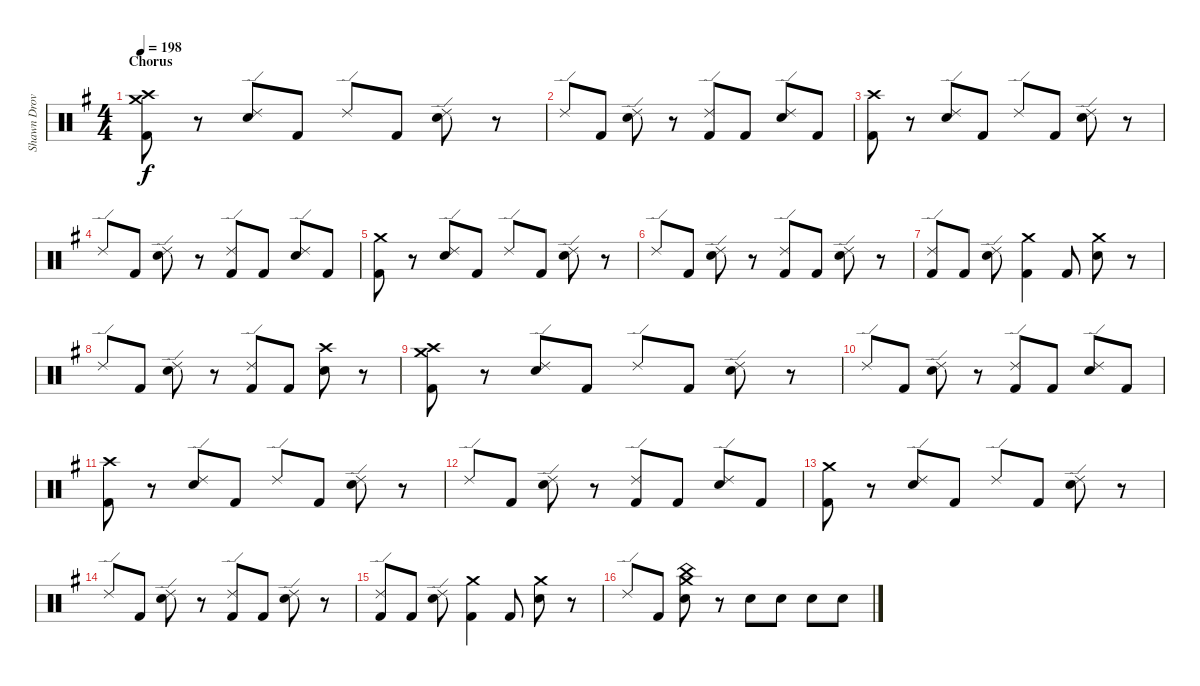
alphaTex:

\track ("Shawn Drover" "Shawn Drov") {instrument percussion}
\staff {score}
\articulation defaults
\ts (4 4)
\section ("" "Chorus")
\tempo 198
\clef neutral
\ks g
("Crash medium (hit)" "Crash high (hit)" "Kick (hit) 2").8{dy f} r.8 ("Ride (edge) 2" "Snare (hit) 2").8 "Kick (hit) 2".8 "Ride (edge) 2".8 "Kick (hit) 2".8 ("Ride (edge) 2" "Snare (hit) 2").8 r.8 |
"Ride (edge) 2".8 "Kick (hit) 2".8 ("Ride (edge) 2" "Snare (hit) 2").8 r.8 ("Ride (edge) 2" "Kick (hit) 2").8 "Kick (hit) 2".8 ("Ride (edge) 2" "Snare (hit) 2").8 "Kick (hit) 2".8 |
("Crash high (hit)" "Kick (hit) 2").8 r.8 ("Ride (edge) 2" "Snare (hit) 2").8 "Kick (hit) 2".8 "Ride (edge) 2".8 "Kick (hit) 2".8 ("Ride (edge) 2" "Snare (hit) 2").8 r.8 |
"Ride (edge) 2".8 "Kick (hit) 2".8 ("Ride (edge) 2" "Snare (hit) 2").8 r.8 ("Ride (edge) 2" "Kick (hit) 2").8 "Kick (hit) 2".8 ("Ride (edge) 2" "Snare (hit) 2").8 "Kick (hit) 2".8 |
("Crash medium (hit)" "Kick (hit) 2").8 r.8 ("Ride (edge) 2" "Snare (hit) 2").8 "Kick (hit) 2".8 "Ride (edge) 2".8 "Kick (hit) 2".8 ("Ride (edge) 2" "Snare (hit) 2").8 r.8 |
"Ride (edge) 2".8 "Kick (hit) 2".8 ("Ride (edge) 2" "Snare (hit) 2").8 r.8 ("Ride (edge) 2" "Kick (hit) 2").8 "Kick (hit) 2".8 ("Ride (edge) 2" "Snare (hit) 2").8 r.8 |
("Ride (edge) 2" "Kick (hit) 2").8 "Kick (hit) 2".8 ("Ride (edge) 2" "Snare (hit) 2").8 ("Crash medium (hit)" "Kick (hit) 2").4 "Kick (hit) 2".8 ("Crash medium (hit)" "Snare (hit) 2").8 r.8 |
"Ride (edge) 2".8 "Kick (hit) 2".8 ("Ride (edge) 2" "Snare (hit) 2").8 r.8 ("Ride (edge) 2" "Kick (hit) 2").8 "Kick (hit) 2".8 ("Crash high (hit)" "Snare (hit) 2").8 r.8 |
("Crash medium (hit)" "Crash high (hit)" "Kick (hit) 2").8 r.8 ("Ride (edge) 2" "Snare (hit) 2").8 "Kick (hit) 2".8 "Ride (edge) 2".8 "Kick (hit) 2".8 ("Ride (edge) 2" "Snare (hit) 2").8 r.8 |
"Ride (edge) 2".8 "Kick (hit) 2".8 ("Ride (edge) 2" "Snare (hit) 2").8 r.8 ("Ride (edge) 2" "Kick (hit) 2").8 "Kick (hit) 2".8 ("Ride (edge) 2" "Snare (hit) 2").8 "Kick (hit) 2".8 |
("Crash high (hit)" "Kick (hit) 2").8 r.8 ("Ride (edge) 2" "Snare (hit) 2").8 "Kick (hit) 2".8 "Ride (edge) 2".8 "Kick (hit) 2".8 ("Ride (edge) 2" "Snare (hit) 2").8 r.8 |
"Ride (edge) 2".8 "Kick (hit) 2".8 ("Ride (edge) 2" "Snare (hit) 2").8 r.8 ("Ride (edge) 2" "Kick (hit) 2").8 "Kick (hit) 2".8 ("Ride (edge) 2" "Snare (hit) 2").8 "Kick (hit) 2".8 |
("Crash medium (hit)" "Kick (hit) 2").8 r.8 ("Ride (edge) 2" "Snare (hit) 2").8 "Kick (hit) 2".8 "Ride (edge) 2".8 "Kick (hit) 2".8 ("Ride (edge) 2" "Snare (hit) 2").8 r.8 |
"Ride (edge) 2".8 "Kick (hit) 2".8 ("Ride (edge) 2" "Snare (hit) 2").8 r.8 ("Ride (edge) 2" "Kick (hit) 2").8 "Kick (hit) 2".8 ("Ride (edge) 2" "Snare (hit) 2").8 r.8 |
("Ride (edge) 2" "Kick (hit) 2").8 "Kick (hit) 2".8 ("Ride (edge) 2" "Snare (hit) 2").8 ("Crash medium (hit)" "Kick (hit) 2").4 "Kick (hit) 2".8 ("Crash medium (hit)" "Snare (hit) 2").8 r.8 |
"Ride (edge) 2".8 "Kick (hit) 2".8 ("Crash medium (hit)" "China (hit)" "Snare (hit) 2").8 r.8 "Snare (hit) 2".8 "Snare (hit) 2".8 "Snare (hit) 2".8 "Snare (hit) 2".8
